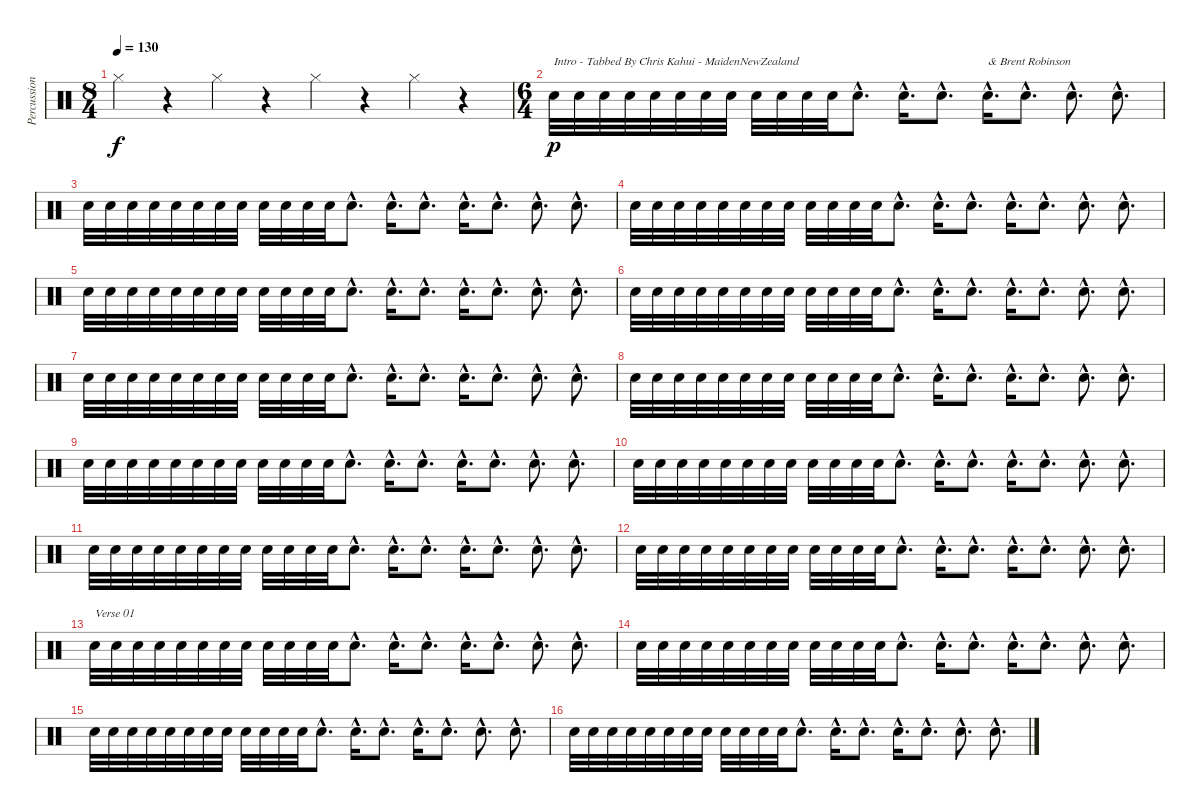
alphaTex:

\track ("Percussion" "Percussion") {instrument percussion}
\staff {score}
\articulation defaults
\ts (8 4)
\tempo 130
\clef neutral
\ks c "Hi-Hat (closed)".4{dy f}
r.4 "Hi-Hat (closed)".4 r.4 "Hi-Hat (closed)".4 r.4 "Hi-Hat (closed)".4 r.4 |
\ts (6 4)
"Snare (hit) 2".32{txt "Intro - Tabbed By Chris Kahui - MaidenNewZealand" dy p} "Snare (hit) 2".32 "Snare (hit) 2".32 "Snare (hit) 2".32 "Snare (hit) 2".32 "Snare (hit) 2".32 "Snare (hit) 2".32 "Snare (hit) 2".32 "Snare (hit) 2".32 "Snare (hit) 2".32 "Snare (hit) 2".32 "Snare (hit) 2".32 "Snare (hit) 2"{hac}.8{d} "Snare (hit) 2"{hac}.16{d} "Snare (hit) 2"{hac}.8{d} "Snare (hit) 2"{hac}.16{d txt "& Brent Robinson"} "Snare (hit) 2"{hac}.8{d} "Snare (hit) 2"{hac}.8{d} "Snare (hit) 2"{hac}.8{d} |
"Snare (hit) 2".32 "Snare (hit) 2".32 "Snare (hit) 2".32 "Snare (hit) 2".32 "Snare (hit) 2".32 "Snare (hit) 2".32 "Snare (hit) 2".32 "Snare (hit) 2".32 "Snare (hit) 2".32 "Snare (hit) 2".32 "Snare (hit) 2".32 "Snare (hit) 2".32 "Snare (hit) 2"{hac}.8{d} "Snare (hit) 2"{hac}.16{d} "Snare (hit) 2"{hac}.8{d} "Snare (hit) 2"{hac}.16{d} "Snare (hit) 2"{hac}.8{d} "Snare (hit) 2"{hac}.8{d} "Snare (hit) 2"{hac}.8{d} |
"Snare (hit) 2".32 "Snare (hit) 2".32 "Snare (hit) 2".32 "Snare (hit) 2".32 "Snare (hit) 2".32 "Snare (hit) 2".32 "Snare (hit) 2".32 "Snare (hit) 2".32 "Snare (hit) 2".32 "Snare (hit) 2".32 "Snare (hit) 2".32 "Snare (hit) 2".32 "Snare (hit) 2"{hac}.8{d} "Snare (hit) 2"{hac}.16{d} "Snare (hit) 2"{hac}.8{d} "Snare (hit) 2"{hac}.16{d} "Snare (hit) 2"{hac}.8{d} "Snare (hit) 2"{hac}.8{d} "Snare (hit) 2"{hac}.8{d} |
"Snare (hit) 2".32 "Snare (hit) 2".32 "Snare (hit) 2".32 "Snare (hit) 2".32 "Snare (hit) 2".32 "Snare (hit) 2".32 "Snare (hit) 2".32 "Snare (hit) 2".32 "Snare (hit) 2".32 "Snare (hit) 2".32 "Snare (hit) 2".32 "Snare (hit) 2".32 "Snare (hit) 2"{hac}.8{d} "Snare (hit) 2"{hac}.16{d} "Snare (hit) 2"{hac}.8{d} "Snare (hit) 2"{hac}.16{d} "Snare (hit) 2"{hac}.8{d} "Snare (hit) 2"{hac}.8{d} "Snare (hit) 2"{hac}.8{d} |
"Snare (hit) 2".32 "Snare (hit) 2".32 "Snare (hit) 2".32 "Snare (hit) 2".32 "Snare (hit) 2".32 "Snare (hit) 2".32 "Snare (hit) 2".32 "Snare (hit) 2".32 "Snare (hit) 2".32 "Snare (hit) 2".32 "Snare (hit) 2".32 "Snare (hit) 2".32 "Snare (hit) 2"{hac}.8{d} "Snare (hit) 2"{hac}.16{d} "Snare (hit) 2"{hac}.8{d} "Snare (hit) 2"{hac}.16{d} "Snare (hit) 2"{hac}.8{d} "Snare (hit) 2"{hac}.8{d} "Snare (hit) 2"{hac}.8{d} |
"Snare (hit) 2".32 "Snare (hit) 2".32 "Snare (hit) 2".32 "Snare (hit) 2".32 "Snare (hit) 2".32 "Snare (hit) 2".32 "Snare (hit) 2".32 "Snare (hit) 2".32 "Snare (hit) 2".32 "Snare (hit) 2".32 "Snare (hit) 2".32 "Snare (hit) 2".32 "Snare (hit) 2"{hac}.8{d} "Snare (hit) 2"{hac}.16{d} "Snare (hit) 2"{hac}.8{d} "Snare (hit) 2"{hac}.16{d} "Snare (hit) 2"{hac}.8{d} "Snare (hit) 2"{hac}.8{d} "Snare (hit) 2"{hac}.8{d} |
"Snare (hit) 2".32 "Snare (hit) 2".32 "Snare (hit) 2".32 "Snare (hit) 2".32 "Snare (hit) 2".32 "Snare (hit) 2".32 "Snare (hit) 2".32 "Snare (hit) 2".32 "Snare (hit) 2".32 "Snare (hit) 2".32 "Snare (hit) 2".32 "Snare (hit) 2".32 "Snare (hit) 2"{hac}.8{d} "Snare (hit) 2"{hac}.16{d} "Snare (hit) 2"{hac}.8{d} "Snare (hit) 2"{hac}.16{d} "Snare (hit) 2"{hac}.8{d} "Snare (hit) 2"{hac}.8{d} "Snare (hit) 2"{hac}.8{d} |
"Snare (hit) 2".32 "Snare (hit) 2".32 "Snare (hit) 2".32 "Snare (hit) 2".32 "Snare (hit) 2".32 "Snare (hit) 2".32 "Snare (hit) 2".32 "Snare (hit) 2".32 "Snare (hit) 2".32 "Snare (hit) 2".32 "Snare (hit) 2".32 "Snare (hit) 2".32 "Snare (hit) 2"{hac}.8{d} "Snare (hit) 2"{hac}.16{d} "Snare (hit) 2"{hac}.8{d} "Snare (hit) 2"{hac}.16{d} "Snare (hit) 2"{hac}.8{d} "Snare (hit) 2"{hac}.8{d} "Snare (hit) 2"{hac}.8{d} |
"Snare (hit) 2".32 "Snare (hit) 2".32 "Snare (hit) 2".32 "Snare (hit) 2".32 "Snare (hit) 2".32 "Snare (hit) 2".32 "Snare (hit) 2".32 "Snare (hit) 2".32 "Snare (hit) 2".32 "Snare (hit) 2".32 "Snare (hit) 2".32 "Snare (hit) 2".32 "Snare (hit) 2"{hac}.8{d} "Snare (hit) 2"{hac}.16{d} "Snare (hit) 2"{hac}.8{d} "Snare (hit) 2"{hac}.16{d} "Snare (hit) 2"{hac}.8{d} "Snare (hit) 2"{hac}.8{d} "Snare (hit) 2"{hac}.8{d} |
"Snare (hit) 2".32 "Snare (hit) 2".32 "Snare (hit) 2".32 "Snare (hit) 2".32 "Snare (hit) 2".32 "Snare (hit) 2".32 "Snare (hit) 2".32 "Snare (hit) 2".32 "Snare (hit) 2".32 "Snare (hit) 2".32 "Snare (hit) 2".32 "Snare (hit) 2".32 "Snare (hit) 2"{hac}.8{d} "Snare (hit) 2"{hac}.16{d} "Snare (hit) 2"{hac}.8{d} "Snare (hit) 2"{hac}.16{d} "Snare (hit) 2"{hac}.8{d} "Snare (hit) 2"{hac}.8{d} "Snare (hit) 2"{hac}.8{d} |
"Snare (hit) 2".32 "Snare (hit) 2".32 "Snare (hit) 2".32 "Snare (hit) 2".32 "Snare (hit) 2".32 "Snare (hit) 2".32 "Snare (hit) 2".32 "Snare (hit) 2".32 "Snare (hit) 2".32 "Snare (hit) 2".32 "Snare (hit) 2".32 "Snare (hit) 2".32 "Snare (hit) 2"{hac}.8{d} "Snare (hit) 2"{hac}.16{d} "Snare (hit) 2"{hac}.8{d} "Snare (hit) 2"{hac}.16{d} "Snare (hit) 2"{hac}.8{d} "Snare (hit) 2"{hac}.8{d} "Snare (hit) 2"{hac}.8{d} |
"Snare (hit) 2".32{txt "Verse 01"} "Snare (hit) 2".32 "Snare (hit) 2".32 "Snare (hit) 2".32 "Snare (hit) 2".32 "Snare (hit) 2".32 "Snare (hit) 2".32 "Snare (hit) 2".32 "Snare (hit) 2".32 "Snare (hit) 2".32 "Snare (hit) 2".32 "Snare (hit) 2".32 "Snare (hit) 2"{hac}.8{d} "Snare (hit) 2"{hac}.16{d} "Snare (hit) 2"{hac}.8{d} "Snare (hit) 2"{hac}.16{d} "Snare (hit) 2"{hac}.8{d} "Snare (hit) 2"{hac}.8{d} "Snare (hit) 2"{hac}.8{d} |
"Snare (hit) 2".32 "Snare (hit) 2".32 "Snare (hit) 2".32 "Snare (hit) 2".32 "Snare (hit) 2".32 "Snare (hit) 2".32 "Snare (hit) 2".32 "Snare (hit) 2".32 "Snare (hit) 2".32 "Snare (hit) 2".32 "Snare (hit) 2".32 "Snare (hit) 2".32 "Snare (hit) 2"{hac}.8{d} "Snare (hit) 2"{hac}.16{d} "Snare (hit) 2"{hac}.8{d} "Snare (hit) 2"{hac}.16{d} "Snare (hit) 2"{hac}.8{d} "Snare (hit) 2"{hac}.8{d} "Snare (hit) 2"{hac}.8{d} |
"Snare (hit) 2".32 "Snare (hit) 2".32 "Snare (hit) 2".32 "Snare (hit) 2".32 "Snare (hit) 2".32 "Snare (hit) 2".32 "Snare (hit) 2".32 "Snare (hit) 2".32 "Snare (hit) 2".32 "Snare (hit) 2".32 "Snare (hit) 2".32 "Snare (hit) 2".32 "Snare (hit) 2"{hac}.8{d} "Snare (hit) 2"{hac}.16{d} "Snare (hit) 2"{hac}.8{d} "Snare (hit) 2"{hac}.16{d} "Snare (hit) 2"{hac}.8{d} "Snare (hit) 2"{hac}.8{d} "Snare (hit) 2"{hac}.8{d} |
"Snare (hit) 2".32 "Snare (hit) 2".32 "Snare (hit) 2".32 "Snare (hit) 2".32 "Snare (hit) 2".32 "Snare (hit) 2".32 "Snare (hit) 2".32 "Snare (hit) 2".32 "Snare (hit) 2".32 "Snare (hit) 2".32 "Snare (hit) 2".32 "Snare (hit) 2".32 "Snare (hit) 2"{hac}.8{d} "Snare (hit) 2"{hac}.16{d} "Snare (hit) 2"{hac}.8{d} "Snare (hit) 2"{hac}.16{d} "Snare (hit) 2"{hac}.8{d} "Snare (hit) 2"{hac}.8{d} "Snare (hit) 2"{hac}.8{d}
